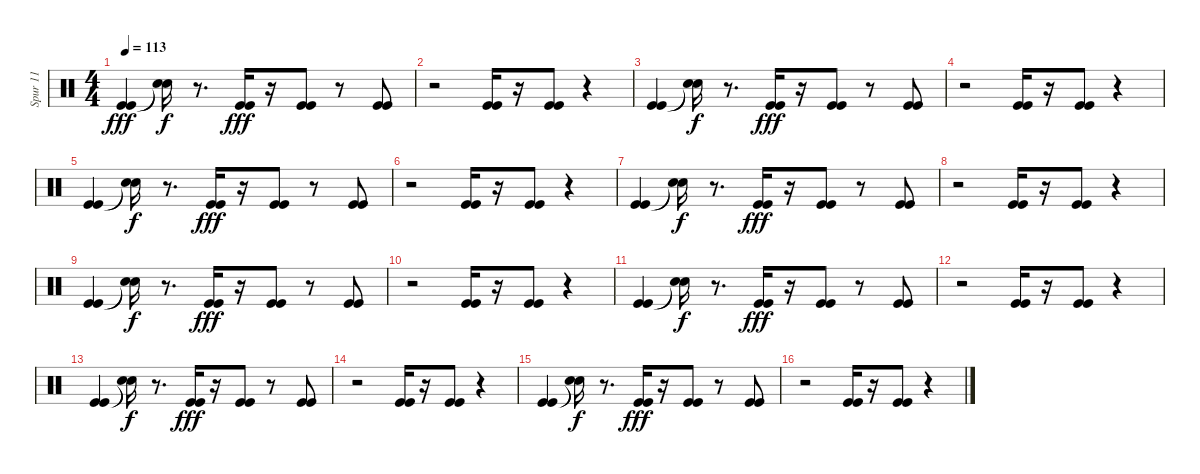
\track ("Spur 11" "Spur 11") {instrument percussion}
\staff {score}
\articulation defaults
\ts (4 4)
\tempo 113
\clef neutral
\ks c
("Kick (hit)" "Kick (hit)").4{dy fff} ("Snare (hit)"{t} "Snare (hit)"{t}).16{dy f} r.8{d} ("Kick (hit)" "Kick (hit)").16{dy fff} r.16 ("Kick (hit)" "Kick (hit)").8 r.8 ("Kick (hit)" "Kick (hit)").8{volume 13} |
r.2 ("Kick (hit)" "Kick (hit)").16{volume 12} r.16 ("Kick (hit)" "Kick (hit)").8 r.4 |
("Kick (hit)" "Kick (hit)").4{volume 12} ("Snare (hit)"{t} "Snare (hit)"{t}).16{dy f} r.8{d} ("Kick (hit)" "Kick (hit)").16{dy fff} r.16 ("Kick (hit)" "Kick (hit)").8 r.8 ("Kick (hit)" "Kick (hit)").8 |
r.2 ("Kick (hit)" "Kick (hit)").16 r.16 ("Kick (hit)" "Kick (hit)").8 r.4 |
("Kick (hit)" "Kick (hit)").4 ("Snare (hit)"{t} "Snare (hit)"{t}).16{dy f} r.8{d} ("Kick (hit)" "Kick (hit)").16{dy fff} r.16 ("Kick (hit)" "Kick (hit)").8 r.8 ("Kick (hit)" "Kick (hit)").8 |
r.2 ("Kick (hit)" "Kick (hit)").16 r.16 ("Kick (hit)" "Kick (hit)").8 r.4 |
("Kick (hit)" "Kick (hit)").4 ("Snare (hit)"{t} "Snare (hit)"{t}).16{dy f} r.8{d} ("Kick (hit)" "Kick (hit)").16{dy fff} r.16 ("Kick (hit)" "Kick (hit)").8 r.8 ("Kick (hit)" "Kick (hit)").8 |
r.2 ("Kick (hit)" "Kick (hit)").16 r.16 ("Kick (hit)" "Kick (hit)").8 r.4 |
("Kick (hit)" "Kick (hit)").4 ("Snare (hit)"{t} "Snare (hit)"{t}).16{dy f} r.8{d} ("Kick (hit)" "Kick (hit)").16{dy fff balance 8} r.16 ("Kick (hit)" "Kick (hit)").8 r.8 ("Kick (hit)" "Kick (hit)").8 |
r.2 ("Kick (hit)" "Kick (hit)").16 r.16 ("Kick (hit)" "Kick (hit)").8 r.4 |
("Kick (hit)" "Kick (hit)").4 ("Snare (hit)"{t} "Snare (hit)"{t}).16{dy f} r.8{d} ("Kick (hit)" "Kick (hit)").16{dy fff volume 12} r.16 ("Kick (hit)" "Kick (hit)").8 r.8 ("Kick (hit)" "Kick (hit)").8{volume 12} |
r.2 ("Kick (hit)" "Kick (hit)").16 r.16 ("Kick (hit)" "Kick (hit)").8 r.4 |
("Kick (hit)" "Kick (hit)").4 ("Snare (hit)"{t} "Snare (hit)"{t}).16{dy f} r.8{d} ("Kick (hit)" "Kick (hit)").16{dy fff} r.16 ("Kick (hit)" "Kick (hit)").8 r.8 ("Kick (hit)" "Kick (hit)").8 |
r.2 ("Kick (hit)" "Kick (hit)").16 r.16 ("Kick (hit)" "Kick (hit)").8 r.4 |
("Kick (hit)" "Kick (hit)").4 ("Snare (hit)"{t} "Snare (hit)"{t}).16{dy f} r.8{d} ("Kick (hit)" "Kick (hit)").16{dy fff} r.16 ("Kick (hit)" "Kick (hit)").8 r.8 ("Kick (hit)" "Kick (hit)").8 |
r.2 ("Kick (hit)" "Kick (hit)").16 r.16 ("Kick (hit)" "Kick (hit)").8 r.4
